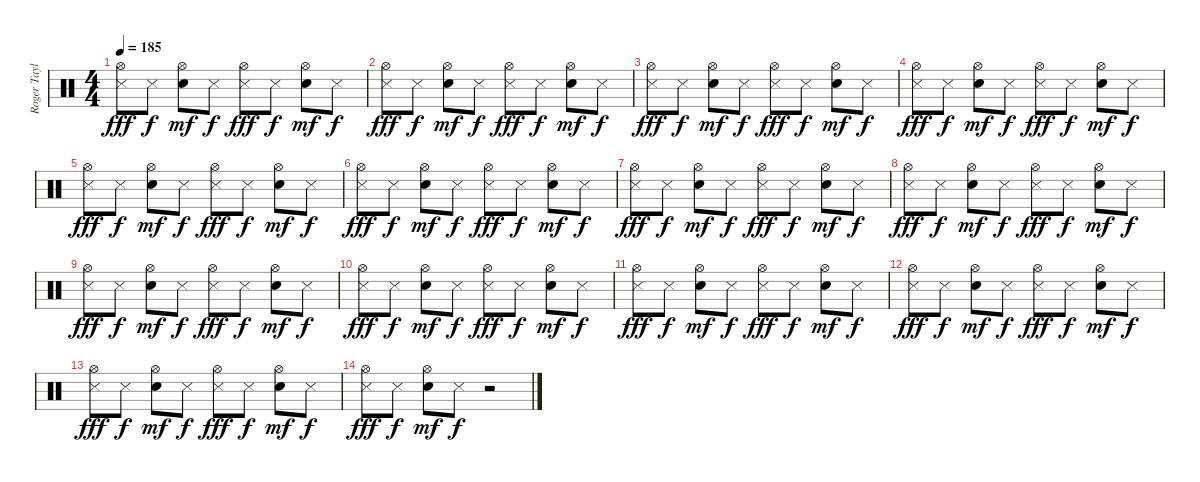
\track ("Roger Taylor" "Roger Tayl") {instrument percussion}
\staff {score}
\articulation defaults
\ts (4 4)
\tempo 185
\clef neutral
\ks c
("Metronome (hit)" "Hi-Hat (open)").8{dy fff} "Metronome (hit)".8{dy f} ("Snare (hit) 2" "Hi-Hat (open)").8{dy mf} "Metronome (hit)".8{dy f} ("Metronome (hit)" "Hi-Hat (open)").8{dy fff} "Metronome (hit)".8{dy f} ("Snare (hit) 2" "Hi-Hat (open)").8{dy mf} "Metronome (hit)".8{dy f} |
("Metronome (hit)" "Hi-Hat (open)").8{dy fff} "Metronome (hit)".8{dy f} ("Snare (hit) 2" "Hi-Hat (open)").8{dy mf} "Metronome (hit)".8{dy f} ("Metronome (hit)" "Hi-Hat (open)").8{dy fff} "Metronome (hit)".8{dy f} ("Snare (hit) 2" "Hi-Hat (open)").8{dy mf} "Metronome (hit)".8{dy f} |
("Metronome (hit)" "Hi-Hat (open)").8{dy fff} "Metronome (hit)".8{dy f} ("Snare (hit) 2" "Hi-Hat (open)").8{dy mf} "Metronome (hit)".8{dy f} ("Metronome (hit)" "Hi-Hat (open)").8{dy fff} "Metronome (hit)".8{dy f} ("Snare (hit) 2" "Hi-Hat (open)").8{dy mf} "Metronome (hit)".8{dy f} |
("Metronome (hit)" "Hi-Hat (open)").8{dy fff} "Metronome (hit)".8{dy f} ("Snare (hit) 2" "Hi-Hat (open)").8{dy mf} "Metronome (hit)".8{dy f} ("Metronome (hit)" "Hi-Hat (open)").8{dy fff} "Metronome (hit)".8{dy f} ("Snare (hit) 2" "Hi-Hat (open)").8{dy mf} "Metronome (hit)".8{dy f} |
("Metronome (hit)" "Hi-Hat (open)").8{dy fff} "Metronome (hit)".8{dy f} ("Snare (hit) 2" "Hi-Hat (open)").8{dy mf} "Metronome (hit)".8{dy f} ("Metronome (hit)" "Hi-Hat (open)").8{dy fff} "Metronome (hit)".8{dy f} ("Snare (hit) 2" "Hi-Hat (open)").8{dy mf} "Metronome (hit)".8{dy f} |
("Metronome (hit)" "Hi-Hat (open)").8{dy fff} "Metronome (hit)".8{dy f} ("Snare (hit) 2" "Hi-Hat (open)").8{dy mf} "Metronome (hit)".8{dy f} ("Metronome (hit)" "Hi-Hat (open)").8{dy fff} "Metronome (hit)".8{dy f} ("Snare (hit) 2" "Hi-Hat (open)").8{dy mf} "Metronome (hit)".8{dy f} |
("Metronome (hit)" "Hi-Hat (open)").8{dy fff} "Metronome (hit)".8{dy f} ("Snare (hit) 2" "Hi-Hat (open)").8{dy mf} "Metronome (hit)".8{dy f} ("Metronome (hit)" "Hi-Hat (open)").8{dy fff} "Metronome (hit)".8{dy f} ("Snare (hit) 2" "Hi-Hat (open)").8{dy mf} "Metronome (hit)".8{dy f} |
("Metronome (hit)" "Hi-Hat (open)").8{dy fff} "Metronome (hit)".8{dy f} ("Snare (hit) 2" "Hi-Hat (open)").8{dy mf} "Metronome (hit)".8{dy f} ("Metronome (hit)" "Hi-Hat (open)").8{dy fff} "Metronome (hit)".8{dy f} ("Snare (hit) 2" "Hi-Hat (open)").8{dy mf} "Metronome (hit)".8{dy f} |
("Metronome (hit)" "Hi-Hat (open)").8{dy fff} "Metronome (hit)".8{dy f} ("Snare (hit) 2" "Hi-Hat (open)").8{dy mf} "Metronome (hit)".8{dy f} ("Metronome (hit)" "Hi-Hat (open)").8{dy fff} "Metronome (hit)".8{dy f} ("Snare (hit) 2" "Hi-Hat (open)").8{dy mf} "Metronome (hit)".8{dy f} |
("Metronome (hit)" "Hi-Hat (open)").8{dy fff} "Metronome (hit)".8{dy f} ("Snare (hit) 2" "Hi-Hat (open)").8{dy mf} "Metronome (hit)".8{dy f} ("Metronome (hit)" "Hi-Hat (open)").8{dy fff} "Metronome (hit)".8{dy f} ("Snare (hit) 2" "Hi-Hat (open)").8{dy mf} "Metronome (hit)".8{dy f} |
("Metronome (hit)" "Hi-Hat (open)").8{dy fff} "Metronome (hit)".8{dy f} ("Snare (hit) 2" "Hi-Hat (open)").8{dy mf} "Metronome (hit)".8{dy f} ("Metronome (hit)" "Hi-Hat (open)").8{dy fff} "Metronome (hit)".8{dy f} ("Snare (hit) 2" "Hi-Hat (open)").8{dy mf} "Metronome (hit)".8{dy f} |
("Metronome (hit)" "Hi-Hat (open)").8{dy fff} "Metronome (hit)".8{dy f} ("Snare (hit) 2" "Hi-Hat (open)").8{dy mf} "Metronome (hit)".8{dy f} ("Metronome (hit)" "Hi-Hat (open)").8{dy fff} "Metronome (hit)".8{dy f} ("Snare (hit) 2" "Hi-Hat (open)").8{dy mf} "Metronome (hit)".8{dy f} |
("Metronome (hit)" "Hi-Hat (open)").8{dy fff} "Metronome (hit)".8{dy f} ("Snare (hit) 2" "Hi-Hat (open)").8{dy mf} "Metronome (hit)".8{dy f} ("Metronome (hit)" "Hi-Hat (open)").8{dy fff} "Metronome (hit)".8{dy f} ("Snare (hit) 2" "Hi-Hat (open)").8{dy mf} "Metronome (hit)".8{dy f} |
("Metronome (hit)" "Hi-Hat (open)").8{dy fff} "Metronome (hit)".8{dy f} ("Snare (hit) 2" "Hi-Hat (open)").8{dy mf} "Metronome (hit)".8{dy f} r.2
